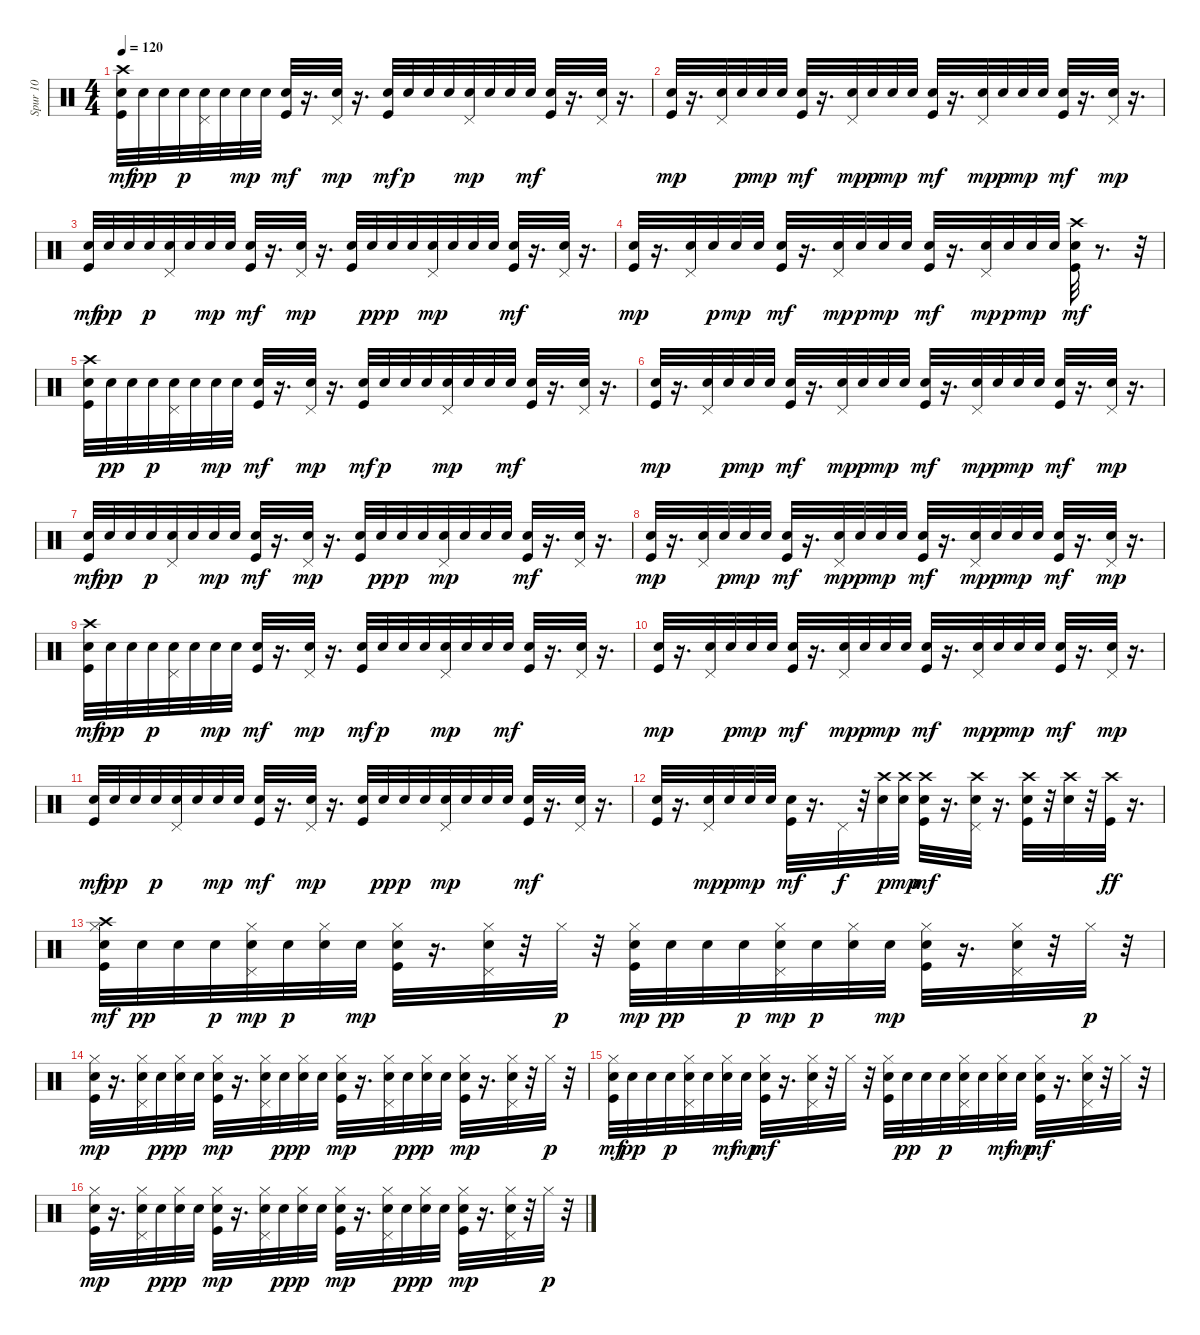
\track ("Spur 10" "Spur 10") {instrument percussion}
\staff {score}
\articulation defaults
\ts (4 4)
\tempo 120
\clef neutral
\ks c
("Kick (hit)" "Snare (hit) 2" "Crash high (hit)").32{dy mf} "Snare (hit) 2".32{dy pp} "Snare (hit) 2".32 "Snare (hit) 2".32{dy p} ("Snare (hit) 2" "Pedal Hi-Hat (hit)").32 "Snare (hit) 2".32 "Snare (hit) 2".32{dy mp} "Snare (hit) 2".32 ("Kick (hit)" "Snare (hit) 2").32{dy mf} r.16{d} ("Snare (hit) 2" "Pedal Hi-Hat (hit)").32{dy mp} r.16{d} ("Kick (hit)" "Snare (hit) 2").32{dy mf} "Snare (hit) 2".32{dy p} "Snare (hit) 2".32 "Snare (hit) 2".32 ("Snare (hit) 2" "Pedal Hi-Hat (hit)").32{dy mp} "Snare (hit) 2".32 "Snare (hit) 2".32 "Snare (hit) 2".32{dy mf} ("Kick (hit)" "Snare (hit) 2").32 r.16{d} ("Snare (hit) 2" "Pedal Hi-Hat (hit)").32 r.16{d} |
("Kick (hit)" "Snare (hit) 2").32{dy mp} r.16{d} ("Snare (hit) 2" "Pedal Hi-Hat (hit)").32 "Snare (hit) 2".32{dy p} "Snare (hit) 2".32{dy mp} "Snare (hit) 2".32 ("Kick (hit)" "Snare (hit) 2").32{dy mf} r.16{d} ("Snare (hit) 2" "Pedal Hi-Hat (hit)").32{dy mp} "Snare (hit) 2".32{dy p} "Snare (hit) 2".32{dy mp} "Snare (hit) 2".32 ("Kick (hit)" "Snare (hit) 2").32{dy mf} r.16{d} ("Snare (hit) 2" "Pedal Hi-Hat (hit)").32{dy mp} "Snare (hit) 2".32{dy p} "Snare (hit) 2".32{dy mp} "Snare (hit) 2".32 ("Kick (hit)" "Snare (hit) 2").32{dy mf} r.16{d} ("Snare (hit) 2" "Pedal Hi-Hat (hit)").32{dy mp} r.16{d} |
("Kick (hit)" "Snare (hit) 2").32{dy mf} "Snare (hit) 2".32{dy pp} "Snare (hit) 2".32 "Snare (hit) 2".32{dy p} ("Snare (hit) 2" "Pedal Hi-Hat (hit)").32 "Snare (hit) 2".32 "Snare (hit) 2".32{dy mp} "Snare (hit) 2".32 ("Kick (hit)" "Snare (hit) 2").32{dy mf} r.16{d} ("Snare (hit) 2" "Pedal Hi-Hat (hit)").32{dy mp} r.16{d} ("Kick (hit)" "Snare (hit) 2").32 "Snare (hit) 2".32{dy pp} "Snare (hit) 2".32{dy p} "Snare (hit) 2".32 ("Snare (hit) 2" "Pedal Hi-Hat (hit)").32{dy mp} "Snare (hit) 2".32 "Snare (hit) 2".32 "Snare (hit) 2".32 ("Kick (hit)" "Snare (hit) 2").32{dy mf} r.16{d} ("Snare (hit) 2" "Pedal Hi-Hat (hit)").32 r.16{d} |
("Kick (hit)" "Snare (hit) 2").32{dy mp} r.16{d} ("Snare (hit) 2" "Pedal Hi-Hat (hit)").32 "Snare (hit) 2".32{dy p} "Snare (hit) 2".32{dy mp} "Snare (hit) 2".32 ("Kick (hit)" "Snare (hit) 2").32{dy mf} r.16{d} ("Snare (hit) 2" "Pedal Hi-Hat (hit)").32{dy mp} "Snare (hit) 2".32{dy p} "Snare (hit) 2".32{dy mp} "Snare (hit) 2".32 ("Kick (hit)" "Snare (hit) 2").32{dy mf} r.16{d} ("Snare (hit) 2" "Pedal Hi-Hat (hit)").32{dy mp} "Snare (hit) 2".32{dy p} "Snare (hit) 2".32{dy mp} "Snare (hit) 2".32 ("Kick (hit)" "Snare (hit) 2" "Crash high (hit)").32{dy mf} r.8{d} r.32 |
("Kick (hit)" "Snare (hit) 2" "Crash high (hit)").32 "Snare (hit) 2".32{dy pp} "Snare (hit) 2".32 "Snare (hit) 2".32{dy p} ("Snare (hit) 2" "Pedal Hi-Hat (hit)").32 "Snare (hit) 2".32 "Snare (hit) 2".32{dy mp} "Snare (hit) 2".32 ("Kick (hit)" "Snare (hit) 2").32{dy mf} r.16{d} ("Snare (hit) 2" "Pedal Hi-Hat (hit)").32{dy mp} r.16{d} ("Kick (hit)" "Snare (hit) 2").32{dy mf} "Snare (hit) 2".32{dy p} "Snare (hit) 2".32 "Snare (hit) 2".32 ("Snare (hit) 2" "Pedal Hi-Hat (hit)").32{dy mp} "Snare (hit) 2".32 "Snare (hit) 2".32 "Snare (hit) 2".32{dy mf} ("Kick (hit)" "Snare (hit) 2").32 r.16{d} ("Snare (hit) 2" "Pedal Hi-Hat (hit)").32 r.16{d} |
("Kick (hit)" "Snare (hit) 2").32{dy mp} r.16{d} ("Snare (hit) 2" "Pedal Hi-Hat (hit)").32 "Snare (hit) 2".32{dy p} "Snare (hit) 2".32{dy mp} "Snare (hit) 2".32 ("Kick (hit)" "Snare (hit) 2").32{dy mf} r.16{d} ("Snare (hit) 2" "Pedal Hi-Hat (hit)").32{dy mp} "Snare (hit) 2".32{dy p} "Snare (hit) 2".32{dy mp} "Snare (hit) 2".32 ("Kick (hit)" "Snare (hit) 2").32{dy mf} r.16{d} ("Snare (hit) 2" "Pedal Hi-Hat (hit)").32{dy mp} "Snare (hit) 2".32{dy p} "Snare (hit) 2".32{dy mp} "Snare (hit) 2".32 ("Kick (hit)" "Snare (hit) 2").32{dy mf} r.16{d} ("Snare (hit) 2" "Pedal Hi-Hat (hit)").32{dy mp} r.16{d} |
("Kick (hit)" "Snare (hit) 2").32{dy mf} "Snare (hit) 2".32{dy pp} "Snare (hit) 2".32 "Snare (hit) 2".32{dy p} ("Snare (hit) 2" "Pedal Hi-Hat (hit)").32 "Snare (hit) 2".32 "Snare (hit) 2".32{dy mp} "Snare (hit) 2".32 ("Kick (hit)" "Snare (hit) 2").32{dy mf} r.16{d} ("Snare (hit) 2" "Pedal Hi-Hat (hit)").32{dy mp} r.16{d} ("Kick (hit)" "Snare (hit) 2").32 "Snare (hit) 2".32{dy pp} "Snare (hit) 2".32{dy p} "Snare (hit) 2".32 ("Snare (hit) 2" "Pedal Hi-Hat (hit)").32{dy mp} "Snare (hit) 2".32 "Snare (hit) 2".32 "Snare (hit) 2".32 ("Kick (hit)" "Snare (hit) 2").32{dy mf} r.16{d} ("Snare (hit) 2" "Pedal Hi-Hat (hit)").32 r.16{d} |
("Kick (hit)" "Snare (hit) 2").32{dy mp} r.16{d} ("Snare (hit) 2" "Pedal Hi-Hat (hit)").32 "Snare (hit) 2".32{dy p} "Snare (hit) 2".32{dy mp} "Snare (hit) 2".32 ("Kick (hit)" "Snare (hit) 2").32{dy mf} r.16{d} ("Snare (hit) 2" "Pedal Hi-Hat (hit)").32{dy mp} "Snare (hit) 2".32{dy p} "Snare (hit) 2".32{dy mp} "Snare (hit) 2".32 ("Kick (hit)" "Snare (hit) 2").32{dy mf} r.16{d} ("Snare (hit) 2" "Pedal Hi-Hat (hit)").32{dy mp} "Snare (hit) 2".32{dy p} "Snare (hit) 2".32{dy mp} "Snare (hit) 2".32 ("Kick (hit)" "Snare (hit) 2").32{dy mf} r.16{d} ("Snare (hit) 2" "Pedal Hi-Hat (hit)").32{dy mp} r.16{d} |
("Kick (hit)" "Snare (hit) 2" "Crash high (hit)").32{dy mf} "Snare (hit) 2".32{dy pp} "Snare (hit) 2".32 "Snare (hit) 2".32{dy p} ("Snare (hit) 2" "Pedal Hi-Hat (hit)").32 "Snare (hit) 2".32 "Snare (hit) 2".32{dy mp} "Snare (hit) 2".32 ("Kick (hit)" "Snare (hit) 2").32{dy mf} r.16{d} ("Snare (hit) 2" "Pedal Hi-Hat (hit)").32{dy mp} r.16{d} ("Kick (hit)" "Snare (hit) 2").32{dy mf} "Snare (hit) 2".32{dy p} "Snare (hit) 2".32 "Snare (hit) 2".32 ("Snare (hit) 2" "Pedal Hi-Hat (hit)").32{dy mp} "Snare (hit) 2".32 "Snare (hit) 2".32 "Snare (hit) 2".32{dy mf} ("Kick (hit)" "Snare (hit) 2").32 r.16{d} ("Snare (hit) 2" "Pedal Hi-Hat (hit)").32 r.16{d} |
("Kick (hit)" "Snare (hit) 2").32{dy mp} r.16{d} ("Snare (hit) 2" "Pedal Hi-Hat (hit)").32 "Snare (hit) 2".32{dy p} "Snare (hit) 2".32{dy mp} "Snare (hit) 2".32 ("Kick (hit)" "Snare (hit) 2").32{dy mf} r.16{d} ("Snare (hit) 2" "Pedal Hi-Hat (hit)").32{dy mp} "Snare (hit) 2".32{dy p} "Snare (hit) 2".32{dy mp} "Snare (hit) 2".32 ("Kick (hit)" "Snare (hit) 2").32{dy mf} r.16{d} ("Snare (hit) 2" "Pedal Hi-Hat (hit)").32{dy mp} "Snare (hit) 2".32{dy p} "Snare (hit) 2".32{dy mp} "Snare (hit) 2".32 ("Kick (hit)" "Snare (hit) 2").32{dy mf} r.16{d} ("Snare (hit) 2" "Pedal Hi-Hat (hit)").32{dy mp} r.16{d} |
("Kick (hit)" "Snare (hit) 2").32{dy mf} "Snare (hit) 2".32{dy pp} "Snare (hit) 2".32 "Snare (hit) 2".32{dy p} ("Snare (hit) 2" "Pedal Hi-Hat (hit)").32 "Snare (hit) 2".32 "Snare (hit) 2".32{dy mp} "Snare (hit) 2".32 ("Kick (hit)" "Snare (hit) 2").32{dy mf} r.16{d} ("Snare (hit) 2" "Pedal Hi-Hat (hit)").32{dy mp} r.16{d} ("Kick (hit)" "Snare (hit) 2").32 "Snare (hit) 2".32{dy pp} "Snare (hit) 2".32{dy p} "Snare (hit) 2".32 ("Snare (hit) 2" "Pedal Hi-Hat (hit)").32{dy mp} "Snare (hit) 2".32 "Snare (hit) 2".32 "Snare (hit) 2".32 ("Kick (hit)" "Snare (hit) 2").32{dy mf} r.16{d} ("Snare (hit) 2" "Pedal Hi-Hat (hit)").32 r.16{d} |
("Kick (hit)" "Snare (hit) 2").32 r.16{d} ("Snare (hit) 2" "Pedal Hi-Hat (hit)").32{dy mp} "Snare (hit) 2".32{dy p} "Snare (hit) 2".32{dy mp} "Snare (hit) 2".32 ("Kick (hit)" "Snare (hit) 2").32{dy mf} r.16{d} "Pedal Hi-Hat (hit)".32{dy f} r.32 ("Snare (hit) 2" "Crash high (hit)").32{dy p} ("Snare (hit) 2" "Crash high (hit)").32{dy mp} ("Kick (hit)" "Snare (hit) 2" "Crash high (hit)").32{dy mf} r.16{d} ("Snare (hit) 2" "Pedal Hi-Hat (hit)" "Crash high (hit)").32 r.16{d} ("Kick (hit)" "Snare (hit) 2" "Crash high (hit)").32 r.32 ("Snare (hit) 2" "Crash high (hit)").32 r.32 ("Kick (hit)" "Crash high (hit)").32{dy ff} r.16{d} |
("Kick (hit)" "Snare (hit) 2" "Hi-Hat (closed)" "Crash high (hit)").32{dy mf} "Snare (hit) 2".32{dy pp} "Snare (hit) 2".32 "Snare (hit) 2".32{dy p} ("Snare (hit) 2" "Hi-Hat (closed)" "Pedal Hi-Hat (hit)").32{dy mp} "Snare (hit) 2".32{dy p} ("Snare (hit) 2" "Hi-Hat (closed)").32 "Snare (hit) 2".32{dy mp} ("Kick (hit)" "Snare (hit) 2" "Hi-Hat (closed)").32 r.16{d} ("Snare (hit) 2" "Hi-Hat (closed)" "Pedal Hi-Hat (hit)").32 r.32 "Hi-Hat (closed)".32{dy p} r.32 ("Kick (hit)" "Snare (hit) 2" "Hi-Hat (closed)").32{dy mp} "Snare (hit) 2".32{dy pp} "Snare (hit) 2".32 "Snare (hit) 2".32{dy p} ("Snare (hit) 2" "Hi-Hat (closed)" "Pedal Hi-Hat (hit)").32{dy mp} "Snare (hit) 2".32{dy p} ("Snare (hit) 2" "Hi-Hat (closed)").32 "Snare (hit) 2".32{dy mp} ("Kick (hit)" "Snare (hit) 2" "Hi-Hat (closed)").32 r.16{d} ("Snare (hit) 2" "Hi-Hat (closed)" "Pedal Hi-Hat (hit)").32 r.32 "Hi-Hat (closed)".32{dy p} r.32 |
("Kick (hit)" "Snare (hit) 2" "Hi-Hat (closed)").32{dy mp} r.16{d} ("Snare (hit) 2" "Hi-Hat (closed)" "Pedal Hi-Hat (hit)").32 "Snare (hit) 2".32{dy pp} ("Snare (hit) 2" "Hi-Hat (closed)").32{dy p} "Snare (hit) 2".32 ("Kick (hit)" "Snare (hit) 2" "Hi-Hat (closed)").32{dy mp} r.16{d} ("Snare (hit) 2" "Hi-Hat (closed)" "Pedal Hi-Hat (hit)").32 "Snare (hit) 2".32{dy pp} ("Snare (hit) 2" "Hi-Hat (closed)").32{dy p} "Snare (hit) 2".32 ("Kick (hit)" "Snare (hit) 2" "Hi-Hat (closed)").32{dy mp} r.16{d} ("Snare (hit) 2" "Hi-Hat (closed)" "Pedal Hi-Hat (hit)").32 "Snare (hit) 2".32{dy pp} ("Snare (hit) 2" "Hi-Hat (closed)").32{dy p} "Snare (hit) 2".32 ("Kick (hit)" "Snare (hit) 2" "Hi-Hat (closed)").32{dy mp} r.16{d} ("Snare (hit) 2" "Hi-Hat (closed)" "Pedal Hi-Hat (hit)").32 r.32 "Hi-Hat (closed)".32{dy p} r.32 |
("Kick (hit)" "Snare (hit) 2" "Hi-Hat (closed)").32{dy mf} "Snare (hit) 2".32{dy pp} "Snare (hit) 2".32 "Snare (hit) 2".32{dy p} ("Snare (hit) 2" "Hi-Hat (closed)" "Pedal Hi-Hat (hit)").32 "Snare (hit) 2".32 ("Snare (hit) 2" "Hi-Hat (closed)").32{dy mf} "Snare (hit) 2".32{dy mp} ("Kick (hit)" "Snare (hit) 2" "Hi-Hat (closed)").32{dy mf} r.16{d} ("Snare (hit) 2" "Hi-Hat (closed)" "Pedal Hi-Hat (hit)").32 r.32 "Hi-Hat (closed)".32 r.32 ("Kick (hit)" "Snare (hit) 2" "Hi-Hat (closed)").32 "Snare (hit) 2".32{dy pp} "Snare (hit) 2".32 "Snare (hit) 2".32{dy p} ("Snare (hit) 2" "Hi-Hat (closed)" "Pedal Hi-Hat (hit)").32 "Snare (hit) 2".32 ("Snare (hit) 2" "Hi-Hat (closed)").32{dy mf} "Snare (hit) 2".32{dy mp} ("Kick (hit)" "Snare (hit) 2" "Hi-Hat (closed)").32{dy mf} r.16{d} ("Snare (hit) 2" "Hi-Hat (closed)" "Pedal Hi-Hat (hit)").32 r.32 "Hi-Hat (closed)".32 r.32 |
("Kick (hit)" "Snare (hit) 2" "Hi-Hat (closed)").32{dy mp} r.16{d} ("Snare (hit) 2" "Hi-Hat (closed)" "Pedal Hi-Hat (hit)").32 "Snare (hit) 2".32{dy pp} ("Snare (hit) 2" "Hi-Hat (closed)").32{dy p} "Snare (hit) 2".32 ("Kick (hit)" "Snare (hit) 2" "Hi-Hat (closed)").32{dy mp} r.16{d} ("Snare (hit) 2" "Hi-Hat (closed)" "Pedal Hi-Hat (hit)").32 "Snare (hit) 2".32{dy pp} ("Snare (hit) 2" "Hi-Hat (closed)").32{dy p} "Snare (hit) 2".32 ("Kick (hit)" "Snare (hit) 2" "Hi-Hat (closed)").32{dy mp} r.16{d} ("Snare (hit) 2" "Hi-Hat (closed)" "Pedal Hi-Hat (hit)").32 "Snare (hit) 2".32{dy pp} ("Snare (hit) 2" "Hi-Hat (closed)").32{dy p} "Snare (hit) 2".32 ("Kick (hit)" "Snare (hit) 2" "Hi-Hat (closed)").32{dy mp} r.16{d} ("Snare (hit) 2" "Hi-Hat (closed)" "Pedal Hi-Hat (hit)").32 r.32 "Hi-Hat (closed)".32{dy p} r.32
